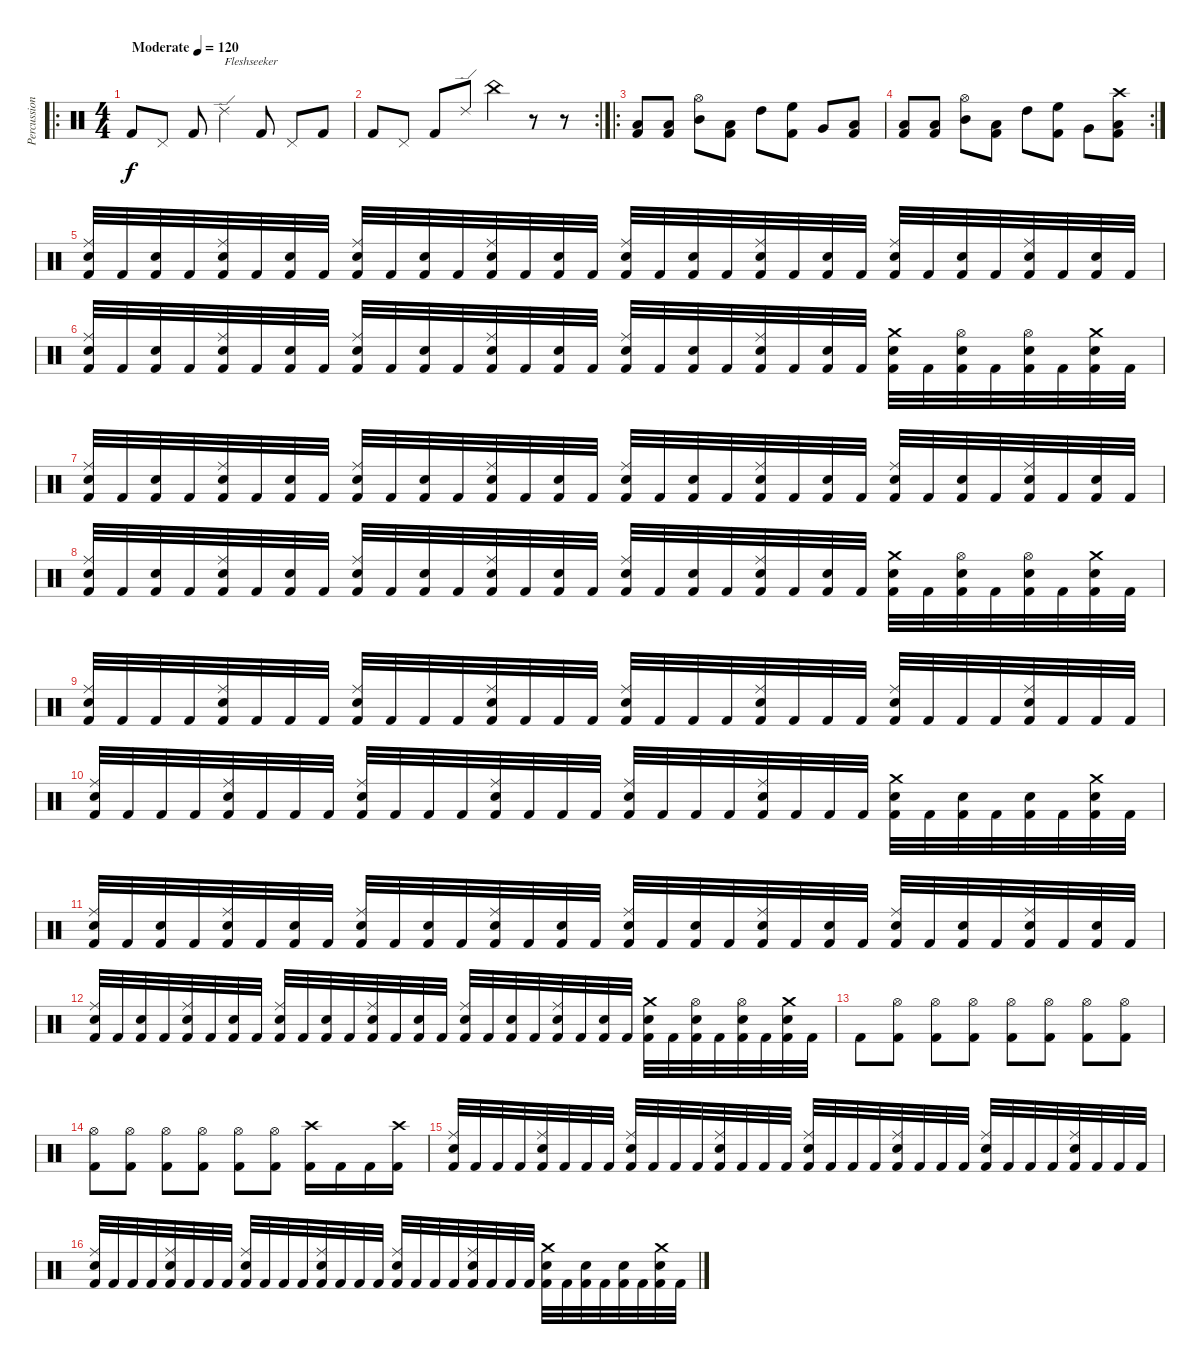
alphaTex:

\track ("Percussion" "Percussion") {instrument percussion}
\staff {score}
\articulation defaults
\ro
\ts (4 4)
\tempo (120 "Moderate")
\clef neutral
\ks c "Kick (hit) 2".8{dy f} "Pedal Hi-Hat (hit)".8 "Kick (hit) 2".8 "Ride (edge) 2".4{txt "Fleshseeker"} "Kick (hit) 2".8 "Pedal Hi-Hat (hit)".8 "Kick (hit) 2".8
|
\rc 2 "Kick (hit) 2".8 "Pedal Hi-Hat (hit)".8 "Kick (hit) 2".8 "Ride (edge) 2".8 "China (hit)".4
r.8 r.8 |
\ro
("Low Floor Tom (hit)" "Kick (hit) 2").8 ("Low Floor Tom (hit)" "Kick (hit) 2").8 ("Hi-Hat (open)" "Mid Tom (hit)").8 ("Low Tom (hit)" "Kick (hit) 2").8 "High Tom (hit)".8 ("High Floor Tom (hit)" "Kick (hit) 2").8 "Very Low Tom (hit)".8 ("Low Floor Tom (hit)" "Kick (hit) 2").8 |
\rc 2
("Low Floor Tom (hit)" "Kick (hit) 2").8 ("Low Floor Tom (hit)" "Kick (hit) 2").8 ("Hi-Hat (open)" "Mid Tom (hit)").8 ("Low Tom (hit)" "Kick (hit) 2").8 "High Tom (hit)".8 ("High Floor Tom (hit)" "Kick (hit) 2").8 "Very Low Tom (hit)".8 ("Crash high (hit)" "Low Floor Tom (hit)" "Kick (hit) 2").8 |
("Ride (middle)" "Snare (hit) 2" "Kick (hit) 2").32 "Kick (hit) 2".32 ("Snare (hit) 2" "Kick (hit) 2").32 "Kick (hit) 2".32 ("Ride (middle)" "Snare (hit) 2" "Kick (hit) 2").32 "Kick (hit) 2".32 ("Snare (hit) 2" "Kick (hit) 2").32 "Kick (hit) 2".32 ("Ride (middle)" "Snare (hit) 2" "Kick (hit) 2").32 "Kick (hit) 2".32 ("Snare (hit) 2" "Kick (hit) 2").32 "Kick (hit) 2".32 ("Ride (middle)" "Snare (hit) 2" "Kick (hit) 2").32 "Kick (hit) 2".32 ("Snare (hit) 2" "Kick (hit) 2").32 "Kick (hit) 2".32 ("Ride (middle)" "Snare (hit) 2" "Kick (hit) 2").32 "Kick (hit) 2".32 ("Snare (hit) 2" "Kick (hit) 2").32 "Kick (hit) 2".32 ("Ride (middle)" "Snare (hit) 2" "Kick (hit) 2").32 "Kick (hit) 2".32 ("Snare (hit) 2" "Kick (hit) 2").32 "Kick (hit) 2".32 ("Ride (middle)" "Snare (hit) 2" "Kick (hit) 2").32 "Kick (hit) 2".32 ("Snare (hit) 2" "Kick (hit) 2").32 "Kick (hit) 2".32 ("Ride (middle)" "Snare (hit) 2" "Kick (hit) 2").32 "Kick (hit) 2".32 ("Snare (hit) 2" "Kick (hit) 2").32 "Kick (hit) 2".32 |
("Ride (middle)" "Snare (hit) 2" "Kick (hit) 2").32 "Kick (hit) 2".32 ("Snare (hit) 2" "Kick (hit) 2").32 "Kick (hit) 2".32 ("Ride (middle)" "Snare (hit) 2" "Kick (hit) 2").32 "Kick (hit) 2".32 ("Snare (hit) 2" "Kick (hit) 2").32 "Kick (hit) 2".32 ("Ride (middle)" "Snare (hit) 2" "Kick (hit) 2").32 "Kick (hit) 2".32 ("Snare (hit) 2" "Kick (hit) 2").32 "Kick (hit) 2".32 ("Ride (middle)" "Snare (hit) 2" "Kick (hit) 2").32 "Kick (hit) 2".32 ("Snare (hit) 2" "Kick (hit) 2").32 "Kick (hit) 2".32 ("Ride (middle)" "Snare (hit) 2" "Kick (hit) 2").32 "Kick (hit) 2".32 ("Snare (hit) 2" "Kick (hit) 2").32 "Kick (hit) 2".32 ("Ride (middle)" "Snare (hit) 2" "Kick (hit) 2").32 "Kick (hit) 2".32 ("Snare (hit) 2" "Kick (hit) 2").32 "Kick (hit) 2".32 ("Crash medium (hit)" "Snare (hit) 2" "Kick (hit) 2").32 "Kick (hit) 2".32 ("Hi-Hat (open)" "Snare (hit) 2" "Kick (hit) 2").32 "Kick (hit) 2".32 ("Hi-Hat (open)" "Snare (hit) 2" "Kick (hit) 2").32 "Kick (hit) 2".32 ("Crash medium (hit)" "Snare (hit) 2" "Kick (hit) 2").32 "Kick (hit) 2".32 |
("Ride (middle)" "Snare (hit) 2" "Kick (hit) 2").32 "Kick (hit) 2".32 ("Snare (hit) 2" "Kick (hit) 2").32 "Kick (hit) 2".32 ("Ride (middle)" "Snare (hit) 2" "Kick (hit) 2").32 "Kick (hit) 2".32 ("Snare (hit) 2" "Kick (hit) 2").32 "Kick (hit) 2".32 ("Ride (middle)" "Snare (hit) 2" "Kick (hit) 2").32 "Kick (hit) 2".32 ("Snare (hit) 2" "Kick (hit) 2").32 "Kick (hit) 2".32 ("Ride (middle)" "Snare (hit) 2" "Kick (hit) 2").32 "Kick (hit) 2".32 ("Snare (hit) 2" "Kick (hit) 2").32 "Kick (hit) 2".32 ("Ride (middle)" "Snare (hit) 2" "Kick (hit) 2").32 "Kick (hit) 2".32 ("Snare (hit) 2" "Kick (hit) 2").32 "Kick (hit) 2".32 ("Ride (middle)" "Snare (hit) 2" "Kick (hit) 2").32 "Kick (hit) 2".32 ("Snare (hit) 2" "Kick (hit) 2").32 "Kick (hit) 2".32 ("Ride (middle)" "Snare (hit) 2" "Kick (hit) 2").32 "Kick (hit) 2".32 ("Snare (hit) 2" "Kick (hit) 2").32 "Kick (hit) 2".32 ("Ride (middle)" "Snare (hit) 2" "Kick (hit) 2").32 "Kick (hit) 2".32 ("Snare (hit) 2" "Kick (hit) 2").32 "Kick (hit) 2".32 |
("Ride (middle)" "Snare (hit) 2" "Kick (hit) 2").32 "Kick (hit) 2".32 ("Snare (hit) 2" "Kick (hit) 2").32 "Kick (hit) 2".32 ("Ride (middle)" "Snare (hit) 2" "Kick (hit) 2").32 "Kick (hit) 2".32 ("Snare (hit) 2" "Kick (hit) 2").32 "Kick (hit) 2".32 ("Ride (middle)" "Snare (hit) 2" "Kick (hit) 2").32 "Kick (hit) 2".32 ("Snare (hit) 2" "Kick (hit) 2").32 "Kick (hit) 2".32 ("Ride (middle)" "Snare (hit) 2" "Kick (hit) 2").32 "Kick (hit) 2".32 ("Snare (hit) 2" "Kick (hit) 2").32 "Kick (hit) 2".32 ("Ride (middle)" "Snare (hit) 2" "Kick (hit) 2").32 "Kick (hit) 2".32 ("Snare (hit) 2" "Kick (hit) 2").32 "Kick (hit) 2".32 ("Ride (middle)" "Snare (hit) 2" "Kick (hit) 2").32 "Kick (hit) 2".32 ("Snare (hit) 2" "Kick (hit) 2").32 "Kick (hit) 2".32 ("Crash medium (hit)" "Snare (hit) 2" "Kick (hit) 2").32 "Kick (hit) 2".32 ("Hi-Hat (open)" "Snare (hit) 2" "Kick (hit) 2").32 "Kick (hit) 2".32 ("Hi-Hat (open)" "Snare (hit) 2" "Kick (hit) 2").32 "Kick (hit) 2".32 ("Crash medium (hit)" "Snare (hit) 2" "Kick (hit) 2").32 "Kick (hit) 2".32 |
("Ride (middle)" "Snare (hit) 2" "Kick (hit) 2").32 "Kick (hit) 2".32 "Kick (hit) 2".32 "Kick (hit) 2".32 ("Ride (middle)" "Snare (hit) 2" "Kick (hit) 2").32 "Kick (hit) 2".32 "Kick (hit) 2".32 "Kick (hit) 2".32 ("Ride (middle)" "Snare (hit) 2" "Kick (hit) 2").32 "Kick (hit) 2".32 "Kick (hit) 2".32 "Kick (hit) 2".32 ("Ride (middle)" "Snare (hit) 2" "Kick (hit) 2").32 "Kick (hit) 2".32 "Kick (hit) 2".32 "Kick (hit) 2".32 ("Ride (middle)" "Snare (hit) 2" "Kick (hit) 2").32 "Kick (hit) 2".32 "Kick (hit) 2".32 "Kick (hit) 2".32 ("Ride (middle)" "Snare (hit) 2" "Kick (hit) 2").32 "Kick (hit) 2".32 "Kick (hit) 2".32 "Kick (hit) 2".32 ("Ride (middle)" "Snare (hit) 2" "Kick (hit) 2").32 "Kick (hit) 2".32 "Kick (hit) 2".32 "Kick (hit) 2".32 ("Ride (middle)" "Snare (hit) 2" "Kick (hit) 2").32 "Kick (hit) 2".32 "Kick (hit) 2".32 "Kick (hit) 2".32 |
("Ride (middle)" "Snare (hit) 2" "Kick (hit) 2").32 "Kick (hit) 2".32 "Kick (hit) 2".32 "Kick (hit) 2".32 ("Ride (middle)" "Snare (hit) 2" "Kick (hit) 2").32 "Kick (hit) 2".32 "Kick (hit) 2".32 "Kick (hit) 2".32 ("Ride (middle)" "Snare (hit) 2" "Kick (hit) 2").32 "Kick (hit) 2".32 "Kick (hit) 2".32 "Kick (hit) 2".32 ("Ride (middle)" "Snare (hit) 2" "Kick (hit) 2").32 "Kick (hit) 2".32 "Kick (hit) 2".32 "Kick (hit) 2".32 ("Ride (middle)" "Snare (hit) 2" "Kick (hit) 2").32 "Kick (hit) 2".32 "Kick (hit) 2".32 "Kick (hit) 2".32 ("Ride (middle)" "Snare (hit) 2" "Kick (hit) 2").32 "Kick (hit) 2".32 "Kick (hit) 2".32 "Kick (hit) 2".32 ("Crash medium (hit)" "Snare (hit) 2" "Kick (hit) 2").32 "Kick (hit) 2".32 ("Snare (hit) 2" "Kick (hit) 2").32 "Kick (hit) 2".32 ("Snare (hit) 2" "Kick (hit) 2").32 "Kick (hit) 2".32 ("Crash medium (hit)" "Snare (hit) 2" "Kick (hit) 2").32 "Kick (hit) 2".32 |
("Ride (middle)" "Snare (hit) 2" "Kick (hit) 2").32 "Kick (hit) 2".32 ("Snare (hit) 2" "Kick (hit) 2").32 "Kick (hit) 2".32 ("Ride (middle)" "Snare (hit) 2" "Kick (hit) 2").32 "Kick (hit) 2".32 ("Snare (hit) 2" "Kick (hit) 2").32 "Kick (hit) 2".32 ("Ride (middle)" "Snare (hit) 2" "Kick (hit) 2").32 "Kick (hit) 2".32 ("Snare (hit) 2" "Kick (hit) 2").32 "Kick (hit) 2".32 ("Ride (middle)" "Snare (hit) 2" "Kick (hit) 2").32 "Kick (hit) 2".32 ("Snare (hit) 2" "Kick (hit) 2").32 "Kick (hit) 2".32 ("Ride (middle)" "Snare (hit) 2" "Kick (hit) 2").32 "Kick (hit) 2".32 ("Snare (hit) 2" "Kick (hit) 2").32 "Kick (hit) 2".32 ("Ride (middle)" "Snare (hit) 2" "Kick (hit) 2").32 "Kick (hit) 2".32 ("Snare (hit) 2" "Kick (hit) 2").32 "Kick (hit) 2".32 ("Ride (middle)" "Snare (hit) 2" "Kick (hit) 2").32 "Kick (hit) 2".32 ("Snare (hit) 2" "Kick (hit) 2").32 "Kick (hit) 2".32 ("Ride (middle)" "Snare (hit) 2" "Kick (hit) 2").32 "Kick (hit) 2".32 ("Snare (hit) 2" "Kick (hit) 2").32 "Kick (hit) 2".32 |
("Ride (middle)" "Snare (hit) 2" "Kick (hit) 2").32 "Kick (hit) 2".32 ("Snare (hit) 2" "Kick (hit) 2").32 "Kick (hit) 2".32 ("Ride (middle)" "Snare (hit) 2" "Kick (hit) 2").32 "Kick (hit) 2".32 ("Snare (hit) 2" "Kick (hit) 2").32 "Kick (hit) 2".32 ("Ride (middle)" "Snare (hit) 2" "Kick (hit) 2").32 "Kick (hit) 2".32 ("Snare (hit) 2" "Kick (hit) 2").32 "Kick (hit) 2".32 ("Ride (middle)" "Snare (hit) 2" "Kick (hit) 2").32 "Kick (hit) 2".32 ("Snare (hit) 2" "Kick (hit) 2").32 "Kick (hit) 2".32 ("Ride (middle)" "Snare (hit) 2" "Kick (hit) 2").32 "Kick (hit) 2".32 ("Snare (hit) 2" "Kick (hit) 2").32 "Kick (hit) 2".32 ("Ride (middle)" "Snare (hit) 2" "Kick (hit) 2").32 "Kick (hit) 2".32 ("Snare (hit) 2" "Kick (hit) 2").32 "Kick (hit) 2".32 ("Crash medium (hit)" "Snare (hit) 2" "Kick (hit) 2").32 "Kick (hit) 2".32 ("Hi-Hat (open)" "Snare (hit) 2" "Kick (hit) 2").32 "Kick (hit) 2".32 ("Hi-Hat (open)" "Snare (hit) 2" "Kick (hit) 2").32 "Kick (hit) 2".32 ("Crash medium (hit)" "Snare (hit) 2" "Kick (hit) 2").32 "Kick (hit) 2".32 |
"Kick (hit) 2".8 ("Hi-Hat (open)" "Kick (hit) 2").8 ("Hi-Hat (open)" "Kick (hit) 2").8 ("Hi-Hat (open)" "Kick (hit) 2").8 ("Hi-Hat (open)" "Kick (hit) 2").8 ("Hi-Hat (open)" "Kick (hit) 2").8 ("Hi-Hat (open)" "Kick (hit) 2").8 ("Hi-Hat (open)" "Kick (hit) 2").8 |
("Hi-Hat (open)" "Kick (hit) 2").8 ("Hi-Hat (open)" "Kick (hit) 2").8 ("Hi-Hat (open)" "Kick (hit) 2").8 ("Hi-Hat (open)" "Kick (hit) 2").8 ("Hi-Hat (open)" "Kick (hit) 2").8 ("Hi-Hat (open)" "Kick (hit) 2").8 ("Crash high (hit)" "Kick (hit) 2").16 "Kick (hit) 2".16 "Kick (hit) 2".16 ("Crash high (hit)" "Kick (hit) 2").16 |
("Ride (middle)" "Snare (hit) 2" "Kick (hit) 2").32 "Kick (hit) 2".32 "Kick (hit) 2".32 "Kick (hit) 2".32 ("Ride (middle)" "Snare (hit) 2" "Kick (hit) 2").32 "Kick (hit) 2".32 "Kick (hit) 2".32 "Kick (hit) 2".32 ("Ride (middle)" "Snare (hit) 2" "Kick (hit) 2").32 "Kick (hit) 2".32 "Kick (hit) 2".32 "Kick (hit) 2".32 ("Ride (middle)" "Snare (hit) 2" "Kick (hit) 2").32 "Kick (hit) 2".32 "Kick (hit) 2".32 "Kick (hit) 2".32 ("Ride (middle)" "Snare (hit) 2" "Kick (hit) 2").32 "Kick (hit) 2".32 "Kick (hit) 2".32 "Kick (hit) 2".32 ("Ride (middle)" "Snare (hit) 2" "Kick (hit) 2").32 "Kick (hit) 2".32 "Kick (hit) 2".32 "Kick (hit) 2".32 ("Ride (middle)" "Snare (hit) 2" "Kick (hit) 2").32 "Kick (hit) 2".32 "Kick (hit) 2".32 "Kick (hit) 2".32 ("Ride (middle)" "Snare (hit) 2" "Kick (hit) 2").32 "Kick (hit) 2".32 "Kick (hit) 2".32 "Kick (hit) 2".32 |
("Ride (middle)" "Snare (hit) 2" "Kick (hit) 2").32 "Kick (hit) 2".32 "Kick (hit) 2".32 "Kick (hit) 2".32 ("Ride (middle)" "Snare (hit) 2" "Kick (hit) 2").32 "Kick (hit) 2".32 "Kick (hit) 2".32 "Kick (hit) 2".32 ("Ride (middle)" "Snare (hit) 2" "Kick (hit) 2").32 "Kick (hit) 2".32 "Kick (hit) 2".32 "Kick (hit) 2".32 ("Ride (middle)" "Snare (hit) 2" "Kick (hit) 2").32 "Kick (hit) 2".32 "Kick (hit) 2".32 "Kick (hit) 2".32 ("Ride (middle)" "Snare (hit) 2" "Kick (hit) 2").32 "Kick (hit) 2".32 "Kick (hit) 2".32 "Kick (hit) 2".32 ("Ride (middle)" "Snare (hit) 2" "Kick (hit) 2").32 "Kick (hit) 2".32 "Kick (hit) 2".32 "Kick (hit) 2".32 ("Crash medium (hit)" "Snare (hit) 2" "Kick (hit) 2").32 "Kick (hit) 2".32 ("Snare (hit) 2" "Kick (hit) 2").32 "Kick (hit) 2".32 ("Snare (hit) 2" "Kick (hit) 2").32 "Kick (hit) 2".32 ("Crash medium (hit)" "Snare (hit) 2" "Kick (hit) 2").32 "Kick (hit) 2".32
